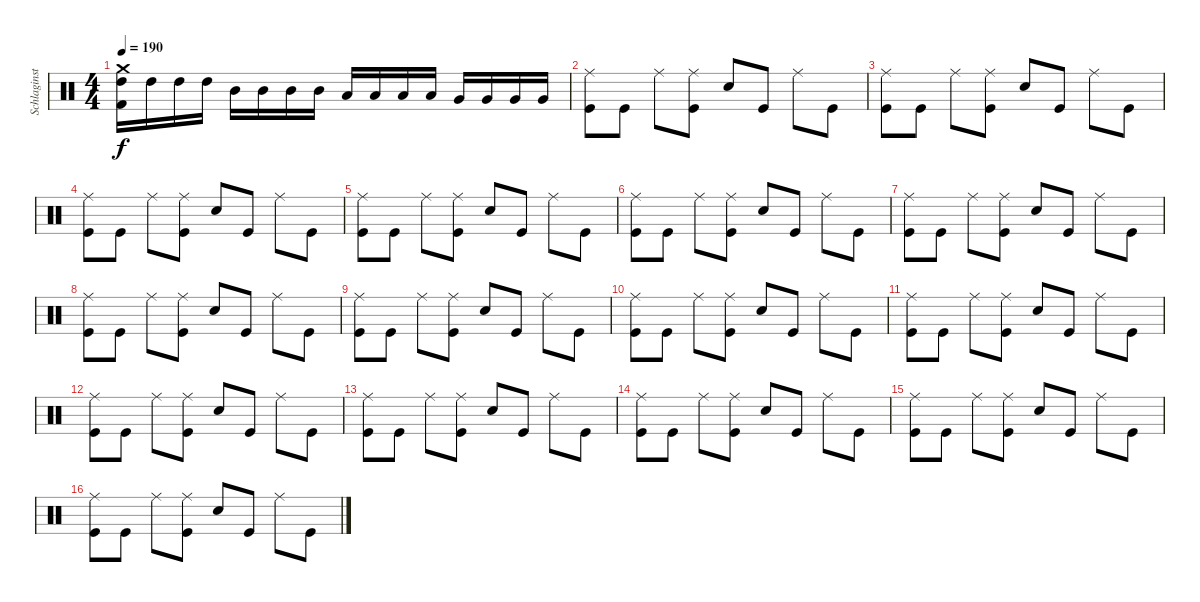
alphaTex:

\track ("Schlaginstrumente - Auswahl" "Schlaginst") {instrument percussion}
\staff {score}
\articulation defaults
\ts (4 4)
\tempo 190
\clef neutral
\ks c
("Crash medium (hit)" "High Tom (hit)" "Kick (hit) 2").16{dy f} "High Tom (hit)".16 "High Tom (hit)".16 "High Tom (hit)".16 "Mid Tom (hit)".16 "Mid Tom (hit)".16 "Mid Tom (hit)".16 "Mid Tom (hit)".16 "Low Tom (hit)".16 "Low Tom (hit)".16 "Low Tom (hit)".16 "Low Tom (hit)".16 "Very Low Tom (hit)".16 "Very Low Tom (hit)".16 "Very Low Tom (hit)".16 "Very Low Tom (hit)".16 |
("Ride (middle)" "Kick (hit)").8 "Kick (hit)".8 "Ride (middle)".8 ("Ride (middle)" "Kick (hit)").8 "Electric Snare (hit)".8 "Kick (hit)".8 "Ride (middle)".8 "Kick (hit)".8 |
("Ride (middle)" "Kick (hit)").8 "Kick (hit)".8 "Ride (middle)".8 ("Ride (middle)" "Kick (hit)").8 "Electric Snare (hit)".8 "Kick (hit)".8 "Ride (middle)".8 "Kick (hit)".8 |
("Ride (middle)" "Kick (hit)").8 "Kick (hit)".8 "Ride (middle)".8 ("Ride (middle)" "Kick (hit)").8 "Electric Snare (hit)".8 "Kick (hit)".8 "Ride (middle)".8 "Kick (hit)".8 |
("Ride (middle)" "Kick (hit)").8 "Kick (hit)".8 "Ride (middle)".8 ("Ride (middle)" "Kick (hit)").8 "Electric Snare (hit)".8 "Kick (hit)".8 "Ride (middle)".8 "Kick (hit)".8 |
("Ride (middle)" "Kick (hit)").8 "Kick (hit)".8 "Ride (middle)".8 ("Ride (middle)" "Kick (hit)").8 "Electric Snare (hit)".8 "Kick (hit)".8 "Ride (middle)".8 "Kick (hit)".8 |
("Ride (middle)" "Kick (hit)").8 "Kick (hit)".8 "Ride (middle)".8 ("Ride (middle)" "Kick (hit)").8 "Electric Snare (hit)".8 "Kick (hit)".8 "Ride (middle)".8 "Kick (hit)".8 |
("Ride (middle)" "Kick (hit)").8 "Kick (hit)".8 "Ride (middle)".8 ("Ride (middle)" "Kick (hit)").8 "Electric Snare (hit)".8 "Kick (hit)".8 "Ride (middle)".8 "Kick (hit)".8 |
("Ride (middle)" "Kick (hit)").8 "Kick (hit)".8 "Ride (middle)".8 ("Ride (middle)" "Kick (hit)").8 "Electric Snare (hit)".8 "Kick (hit)".8 "Ride (middle)".8 "Kick (hit)".8 |
("Ride (middle)" "Kick (hit)").8 "Kick (hit)".8 "Ride (middle)".8 ("Ride (middle)" "Kick (hit)").8 "Electric Snare (hit)".8 "Kick (hit)".8 "Ride (middle)".8 "Kick (hit)".8 |
("Ride (middle)" "Kick (hit)").8 "Kick (hit)".8 "Ride (middle)".8 ("Ride (middle)" "Kick (hit)").8 "Electric Snare (hit)".8 "Kick (hit)".8 "Ride (middle)".8 "Kick (hit)".8 |
("Ride (middle)" "Kick (hit)").8 "Kick (hit)".8 "Ride (middle)".8 ("Ride (middle)" "Kick (hit)").8 "Electric Snare (hit)".8 "Kick (hit)".8 "Ride (middle)".8 "Kick (hit)".8 |
("Ride (middle)" "Kick (hit)").8 "Kick (hit)".8 "Ride (middle)".8 ("Ride (middle)" "Kick (hit)").8 "Electric Snare (hit)".8 "Kick (hit)".8 "Ride (middle)".8 "Kick (hit)".8 |
("Ride (middle)" "Kick (hit)").8 "Kick (hit)".8 "Ride (middle)".8 ("Ride (middle)" "Kick (hit)").8 "Electric Snare (hit)".8 "Kick (hit)".8 "Ride (middle)".8 "Kick (hit)".8 |
("Ride (middle)" "Kick (hit)").8 "Kick (hit)".8 "Ride (middle)".8 ("Ride (middle)" "Kick (hit)").8 "Electric Snare (hit)".8 "Kick (hit)".8 "Ride (middle)".8 "Kick (hit)".8 |
("Ride (middle)" "Kick (hit)").8 "Kick (hit)".8 "Ride (middle)".8 ("Ride (middle)" "Kick (hit)").8 "Electric Snare (hit)".8 "Kick (hit)".8 "Ride (middle)".8 "Kick (hit)".8
